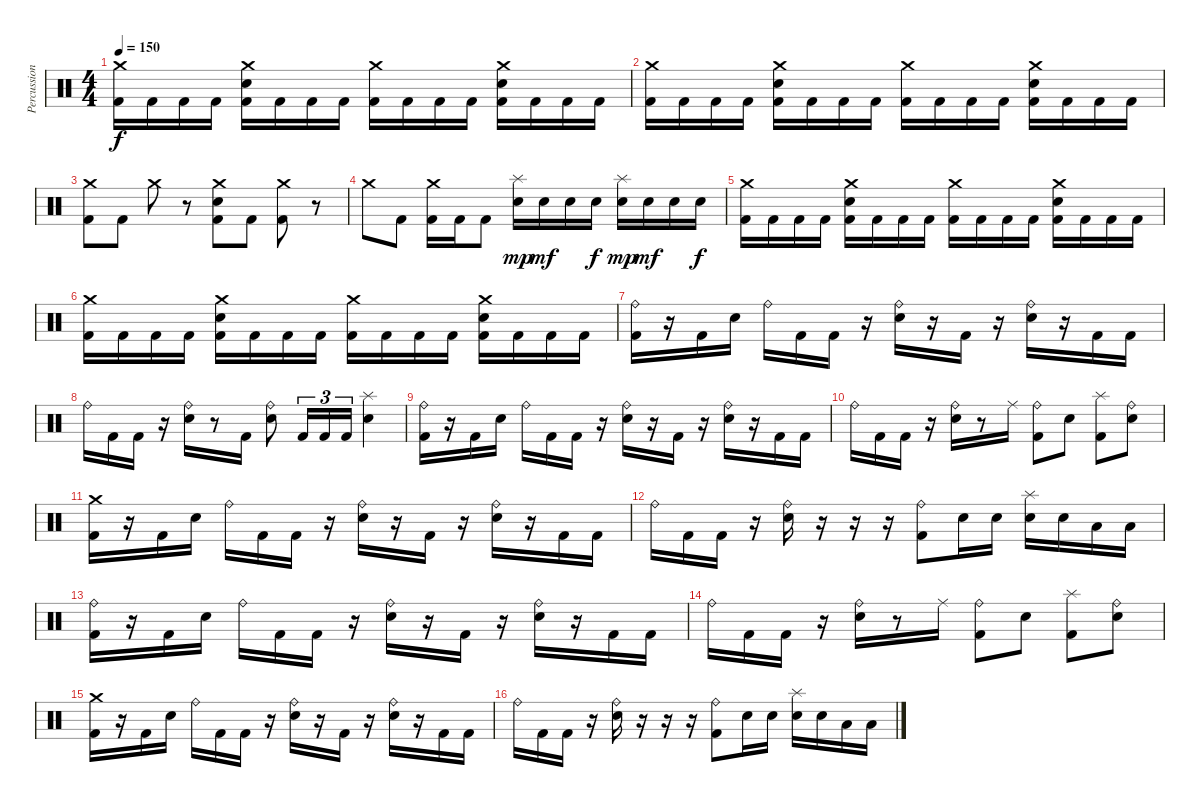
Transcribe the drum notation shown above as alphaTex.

\track ("Percussion" "Percussion") {instrument percussion}
\staff {score}
\articulation defaults
\ts (4 4)
\tempo 150
\clef neutral
\ks c
("Crash medium (hit)" "Kick (hit) 2").16{dy f} "Kick (hit) 2".16 "Kick (hit) 2".16 "Kick (hit) 2".16 ("Crash medium (hit)" "Electric Snare (hit)" "Kick (hit) 2").16 "Kick (hit) 2".16 "Kick (hit) 2".16 "Kick (hit) 2".16 ("Crash medium (hit)" "Kick (hit) 2").16 "Kick (hit) 2".16 "Kick (hit) 2".16 "Kick (hit) 2".16 ("Crash medium (hit)" "Electric Snare (hit)" "Kick (hit) 2").16 "Kick (hit) 2".16 "Kick (hit) 2".16 "Kick (hit) 2".16 |
("Crash medium (hit)" "Kick (hit) 2").16 "Kick (hit) 2".16 "Kick (hit) 2".16 "Kick (hit) 2".16 ("Crash medium (hit)" "Electric Snare (hit)" "Kick (hit) 2").16 "Kick (hit) 2".16 "Kick (hit) 2".16 "Kick (hit) 2".16 ("Crash medium (hit)" "Kick (hit) 2").16 "Kick (hit) 2".16 "Kick (hit) 2".16 "Kick (hit) 2".16 ("Crash medium (hit)" "Electric Snare (hit)" "Kick (hit) 2").16 "Kick (hit) 2".16 "Kick (hit) 2".16 "Kick (hit) 2".16 |
("Crash medium (hit)" "Kick (hit) 2").8 "Kick (hit) 2".8 "Crash medium (hit)".8 r.8 ("Crash medium (hit)" "Electric Snare (hit)" "Kick (hit) 2").8 "Kick (hit) 2".8 ("Crash medium (hit)" "Kick (hit) 2").8 r.8 |
"Crash medium (hit)".8 "Kick (hit) 2".8 ("Crash medium (hit)" "Kick (hit) 2").16 "Kick (hit) 2".16 "Kick (hit) 2".8 ("Splash (hit)" "Electric Snare (hit)").16{dy mp} "Electric Snare (hit)".16{dy mf} "Electric Snare (hit)".16 "Electric Snare (hit)".16{dy f} ("Splash (hit)" "Electric Snare (hit)").16{dy mp} "Electric Snare (hit)".16{dy mf} "Electric Snare (hit)".16 "Electric Snare (hit)".16{dy f} |
("Crash medium (hit)" "Kick (hit) 2").16 "Kick (hit) 2".16 "Kick (hit) 2".16 "Kick (hit) 2".16 ("Crash medium (hit)" "Electric Snare (hit)" "Kick (hit) 2").16 "Kick (hit) 2".16 "Kick (hit) 2".16 "Kick (hit) 2".16 ("Crash medium (hit)" "Kick (hit) 2").16 "Kick (hit) 2".16 "Kick (hit) 2".16 "Kick (hit) 2".16 ("Crash medium (hit)" "Electric Snare (hit)" "Kick (hit) 2").16 "Kick (hit) 2".16 "Kick (hit) 2".16 "Kick (hit) 2".16 |
("Crash medium (hit)" "Kick (hit) 2").16 "Kick (hit) 2".16 "Kick (hit) 2".16 "Kick (hit) 2".16 ("Crash medium (hit)" "Electric Snare (hit)" "Kick (hit) 2").16 "Kick (hit) 2".16 "Kick (hit) 2".16 "Kick (hit) 2".16 ("Crash medium (hit)" "Kick (hit) 2").16 "Kick (hit) 2".16 "Kick (hit) 2".16 "Kick (hit) 2".16 ("Crash medium (hit)" "Electric Snare (hit)" "Kick (hit) 2").16 "Kick (hit) 2".16 "Kick (hit) 2".16 "Kick (hit) 2".16 |
("Ride (bell)" "Kick (hit) 2").16 r.16 "Kick (hit) 2".16 "Electric Snare (hit)".16 "Ride (bell)".16 "Kick (hit) 2".16 "Kick (hit) 2".16 r.16 ("Ride (bell)" "Electric Snare (hit)").16 r.16 "Kick (hit) 2".16 r.16 ("Ride (bell)" "Electric Snare (hit)").16 r.16 "Kick (hit) 2".16 "Kick (hit) 2".16 |
"Ride (bell)".16 "Kick (hit) 2".16 "Kick (hit) 2".16 r.16 ("Ride (bell)" "Electric Snare (hit)").16 r.8 "Kick (hit) 2".16 ("Ride (bell)" "Electric Snare (hit)").8 "Kick (hit) 2".16{tu (3 2)} "Kick (hit) 2".16{tu (3 2)} "Kick (hit) 2".16{tu (3 2)} ("Splash (hit)" "Electric Snare (hit)").4 |
("Ride (bell)" "Kick (hit) 2").16 r.16 "Kick (hit) 2".16 "Electric Snare (hit)".16 "Ride (bell)".16 "Kick (hit) 2".16 "Kick (hit) 2".16 r.16 ("Ride (bell)" "Electric Snare (hit)").16 r.16 "Kick (hit) 2".16 r.16 ("Ride (bell)" "Electric Snare (hit)").16 r.16 "Kick (hit) 2".16 "Kick (hit) 2".16 |
"Ride (bell)".16 "Kick (hit) 2".16 "Kick (hit) 2".16 r.16 ("Ride (bell)" "Electric Snare (hit)").16 r.8 "Ride (middle)".16 ("Ride (bell)" "Kick (hit) 2").8 "Electric Snare (hit)".8 ("Splash (hit)" "Kick (hit) 2").8 ("Ride (bell)" "Electric Snare (hit)").8 |
("Crash medium (hit)" "Kick (hit) 2").16 r.16 "Kick (hit) 2".16 "Electric Snare (hit)".16 "Ride (bell)".16 "Kick (hit) 2".16 "Kick (hit) 2".16 r.16 ("Ride (bell)" "Electric Snare (hit)").16 r.16 "Kick (hit) 2".16 r.16 ("Ride (bell)" "Electric Snare (hit)").16 r.16 "Kick (hit) 2".16 "Kick (hit) 2".16 |
"Ride (bell)".16 "Kick (hit) 2".16 "Kick (hit) 2".16 r.16 ("Ride (bell)" "Electric Snare (hit)").16 r.16 r.16 r.16 ("Ride (bell)" "Kick (hit) 2").8 "Electric Snare (hit)".16 "Electric Snare (hit)".16 ("Splash (hit)" "Electric Snare (hit)").16 "Electric Snare (hit)".16 "Low Tom (hit)".16 "Low Tom (hit)".16 |
("Ride (bell)" "Kick (hit) 2").16 r.16 "Kick (hit) 2".16 "Electric Snare (hit)".16 "Ride (bell)".16 "Kick (hit) 2".16 "Kick (hit) 2".16 r.16 ("Ride (bell)" "Electric Snare (hit)").16 r.16 "Kick (hit) 2".16 r.16 ("Ride (bell)" "Electric Snare (hit)").16 r.16 "Kick (hit) 2".16 "Kick (hit) 2".16 |
"Ride (bell)".16 "Kick (hit) 2".16 "Kick (hit) 2".16 r.16 ("Ride (bell)" "Electric Snare (hit)").16 r.8 "Ride (middle)".16 ("Ride (bell)" "Kick (hit) 2").8 "Electric Snare (hit)".8 ("Splash (hit)" "Kick (hit) 2").8 ("Ride (bell)" "Electric Snare (hit)").8 |
("Crash medium (hit)" "Kick (hit) 2").16 r.16 "Kick (hit) 2".16 "Electric Snare (hit)".16 "Ride (bell)".16 "Kick (hit) 2".16 "Kick (hit) 2".16 r.16 ("Ride (bell)" "Electric Snare (hit)").16 r.16 "Kick (hit) 2".16 r.16 ("Ride (bell)" "Electric Snare (hit)").16 r.16 "Kick (hit) 2".16 "Kick (hit) 2".16 |
"Ride (bell)".16 "Kick (hit) 2".16 "Kick (hit) 2".16 r.16 ("Ride (bell)" "Electric Snare (hit)").16 r.16 r.16 r.16 ("Ride (bell)" "Kick (hit) 2").8 "Electric Snare (hit)".16 "Electric Snare (hit)".16 ("Splash (hit)" "Electric Snare (hit)").16 "Electric Snare (hit)".16 "Low Tom (hit)".16 "Low Tom (hit)".16
